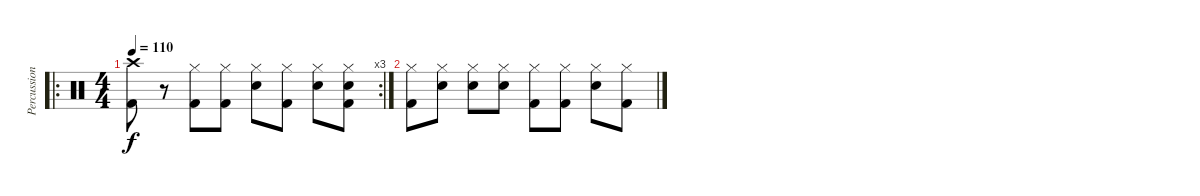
\track ("Percussion" "Percussion") {instrument percussion}
\staff {score}
\articulation defaults
\ro
\rc 3
\ts (4 4)
\tempo 110
\clef neutral
\ks c
("Crash high (hit)" "Kick (hit) 2").8{dy f} r.8 ("Hi-Hat (closed)" "Kick (hit) 2").8 ("Hi-Hat (closed)" "Kick (hit) 2").8 ("Hi-Hat (closed)" "Electric Snare (hit)").8 ("Hi-Hat (closed)" "Kick (hit) 2").8 ("Hi-Hat (closed)" "Electric Snare (hit)").8 ("Hi-Hat (closed)" "Electric Snare (hit)" "Kick (hit) 2").8 |
("Hi-Hat (closed)" "Kick (hit) 2").8 ("Hi-Hat (closed)" "Electric Snare (hit)").8 ("Hi-Hat (closed)" "Electric Snare (hit)").8 ("Hi-Hat (closed)" "Electric Snare (hit)").8 ("Hi-Hat (closed)" "Kick (hit) 2").8 ("Hi-Hat (closed)" "Kick (hit) 2").8 ("Hi-Hat (closed)" "Electric Snare (hit)").8 ("Hi-Hat (closed)" "Kick (hit) 2").8
